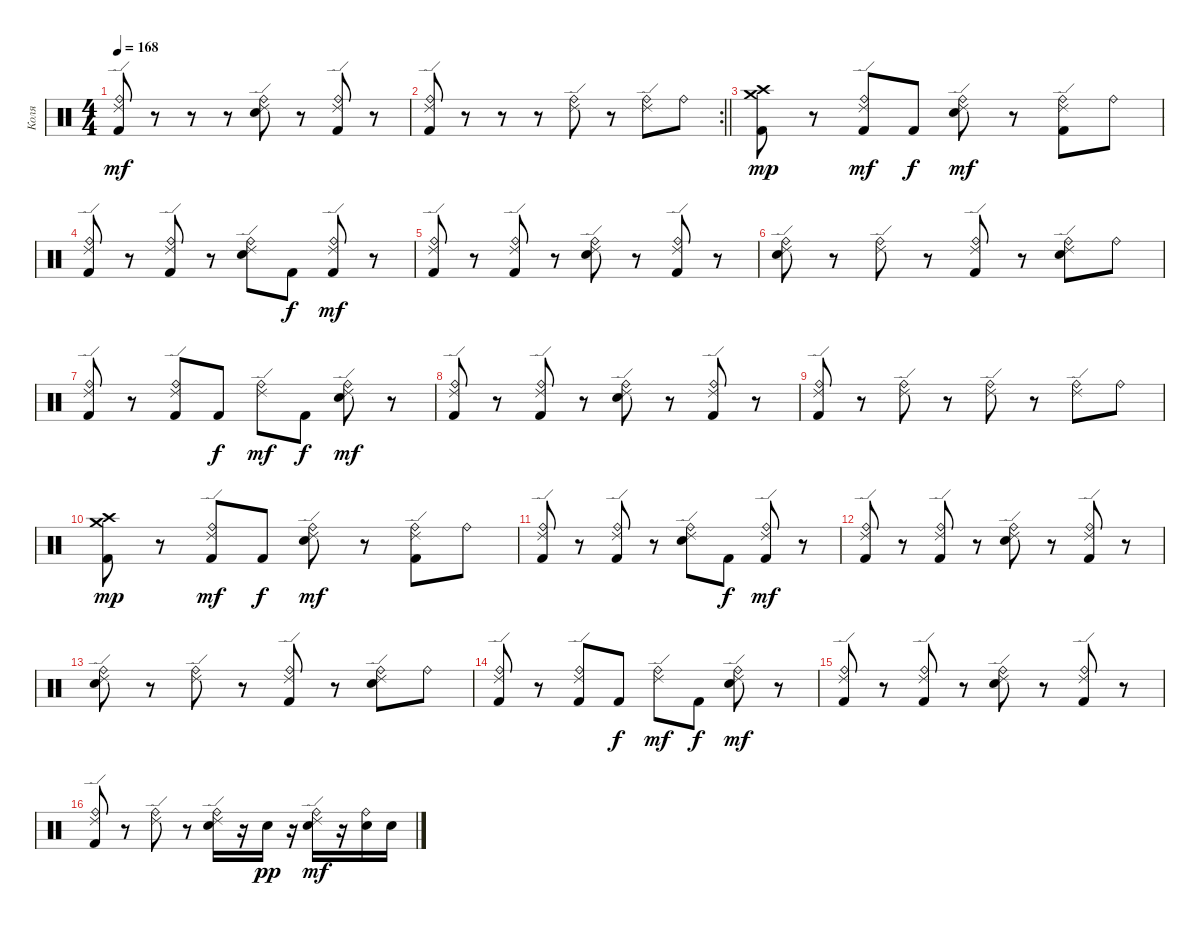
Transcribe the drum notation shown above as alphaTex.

\track ("Коля" "Коля") {instrument percussion}
\staff {score}
\articulation defaults
\ts (4 4)
\tempo 168
\clef neutral
\ks c
("Kick (hit) 2" "Ride (bell)" "Ride (edge) 2").8{dy mf} r.8 r.8 r.8 ("Snare (hit) 2" "Ride (bell)" "Ride (edge) 2").8 r.8 ("Kick (hit) 2" "Ride (bell)" "Ride (edge) 2").8 r.8 |
\rc 2
\barLineRight lightlight
("Kick (hit) 2" "Ride (bell)" "Ride (edge) 2").8 r.8 r.8 r.8 ("Ride (bell)" "Ride (edge) 2").8 r.8 ("Ride (bell)" "Ride (edge) 2").8 "Ride (bell)".8 |
\section ("" "")
("Kick (hit) 2" "Crash medium (hit)" "Crash high (hit)").8{dy mp} r.8 ("Kick (hit) 2" "Ride (bell)" "Ride (edge) 2").8{dy mf} "Kick (hit) 2".8{dy f} ("Snare (hit) 2" "Ride (bell)" "Ride (edge) 2").8{dy mf} r.8 ("Kick (hit) 2" "Ride (bell)" "Ride (edge) 2").8 "Ride (bell)".8 |
("Kick (hit) 2" "Ride (bell)" "Ride (edge) 2").8 r.8 ("Kick (hit) 2" "Ride (bell)" "Ride (edge) 2").8 r.8 ("Snare (hit) 2" "Ride (bell)" "Ride (edge) 2").8 "Kick (hit) 2".8{dy f} ("Kick (hit) 2" "Ride (bell)" "Ride (edge) 2").8{dy mf} r.8 |
("Kick (hit) 2" "Ride (bell)" "Ride (edge) 2").8 r.8 ("Kick (hit) 2" "Ride (bell)" "Ride (edge) 2").8 r.8 ("Snare (hit) 2" "Ride (bell)" "Ride (edge) 2").8 r.8 ("Kick (hit) 2" "Ride (bell)" "Ride (edge) 2").8 r.8 |
("Snare (hit) 2" "Ride (bell)" "Ride (edge) 2").8 r.8 ("Ride (bell)" "Ride (edge) 2").8 r.8 ("Kick (hit) 2" "Ride (bell)" "Ride (edge) 2").8 r.8 ("Snare (hit) 2" "Ride (bell)" "Ride (edge) 2").8 "Ride (bell)".8 |
("Kick (hit) 2" "Ride (bell)" "Ride (edge) 2").8 r.8 ("Kick (hit) 2" "Ride (bell)" "Ride (edge) 2").8 "Kick (hit) 2".8{dy f} ("Ride (bell)" "Ride (edge) 2").8{dy mf} "Kick (hit) 2".8{dy f} ("Snare (hit) 2" "Ride (bell)" "Ride (edge) 2").8{dy mf} r.8 |
("Kick (hit) 2" "Ride (bell)" "Ride (edge) 2").8 r.8 ("Kick (hit) 2" "Ride (bell)" "Ride (edge) 2").8 r.8 ("Snare (hit) 2" "Ride (bell)" "Ride (edge) 2").8 r.8 ("Kick (hit) 2" "Ride (bell)" "Ride (edge) 2").8 r.8 |
("Kick (hit) 2" "Ride (bell)" "Ride (edge) 2").8 r.8 ("Ride (bell)" "Ride (edge) 2").8 r.8 ("Ride (bell)" "Ride (edge) 2").8 r.8 ("Ride (bell)" "Ride (edge) 2").8 "Ride (bell)".8 |
("Kick (hit) 2" "Crash medium (hit)" "Crash high (hit)").8{dy mp} r.8 ("Kick (hit) 2" "Ride (bell)" "Ride (edge) 2").8{dy mf} "Kick (hit) 2".8{dy f} ("Snare (hit) 2" "Ride (bell)" "Ride (edge) 2").8{dy mf} r.8 ("Kick (hit) 2" "Ride (bell)" "Ride (edge) 2").8 "Ride (bell)".8 |
("Kick (hit) 2" "Ride (bell)" "Ride (edge) 2").8 r.8 ("Kick (hit) 2" "Ride (bell)" "Ride (edge) 2").8 r.8 ("Snare (hit) 2" "Ride (bell)" "Ride (edge) 2").8 "Kick (hit) 2".8{dy f} ("Kick (hit) 2" "Ride (bell)" "Ride (edge) 2").8{dy mf} r.8 |
("Kick (hit) 2" "Ride (bell)" "Ride (edge) 2").8 r.8 ("Kick (hit) 2" "Ride (bell)" "Ride (edge) 2").8 r.8 ("Snare (hit) 2" "Ride (bell)" "Ride (edge) 2").8 r.8 ("Kick (hit) 2" "Ride (bell)" "Ride (edge) 2").8 r.8 |
("Snare (hit) 2" "Ride (bell)" "Ride (edge) 2").8 r.8 ("Ride (bell)" "Ride (edge) 2").8 r.8 ("Kick (hit) 2" "Ride (bell)" "Ride (edge) 2").8 r.8 ("Snare (hit) 2" "Ride (bell)" "Ride (edge) 2").8 "Ride (bell)".8 |
("Kick (hit) 2" "Ride (bell)" "Ride (edge) 2").8 r.8 ("Kick (hit) 2" "Ride (bell)" "Ride (edge) 2").8 "Kick (hit) 2".8{dy f} ("Ride (bell)" "Ride (edge) 2").8{dy mf} "Kick (hit) 2".8{dy f} ("Snare (hit) 2" "Ride (bell)" "Ride (edge) 2").8{dy mf} r.8 |
("Kick (hit) 2" "Ride (bell)" "Ride (edge) 2").8 r.8 ("Kick (hit) 2" "Ride (bell)" "Ride (edge) 2").8 r.8 ("Snare (hit) 2" "Ride (bell)" "Ride (edge) 2").8 r.8 ("Kick (hit) 2" "Ride (bell)" "Ride (edge) 2").8 r.8 |
("Kick (hit) 2" "Ride (bell)" "Ride (edge) 2").8 r.8 ("Ride (bell)" "Ride (edge) 2").8 r.8 ("Snare (hit) 2" "Ride (bell)" "Ride (edge) 2").16 r.16 "Snare (hit) 2".16{dy pp} r.16 ("Snare (hit) 2" "Ride (bell)" "Ride (edge) 2").16{dy mf} r.16 ("Snare (hit) 2" "Ride (bell)").16 "Snare (hit) 2".16
